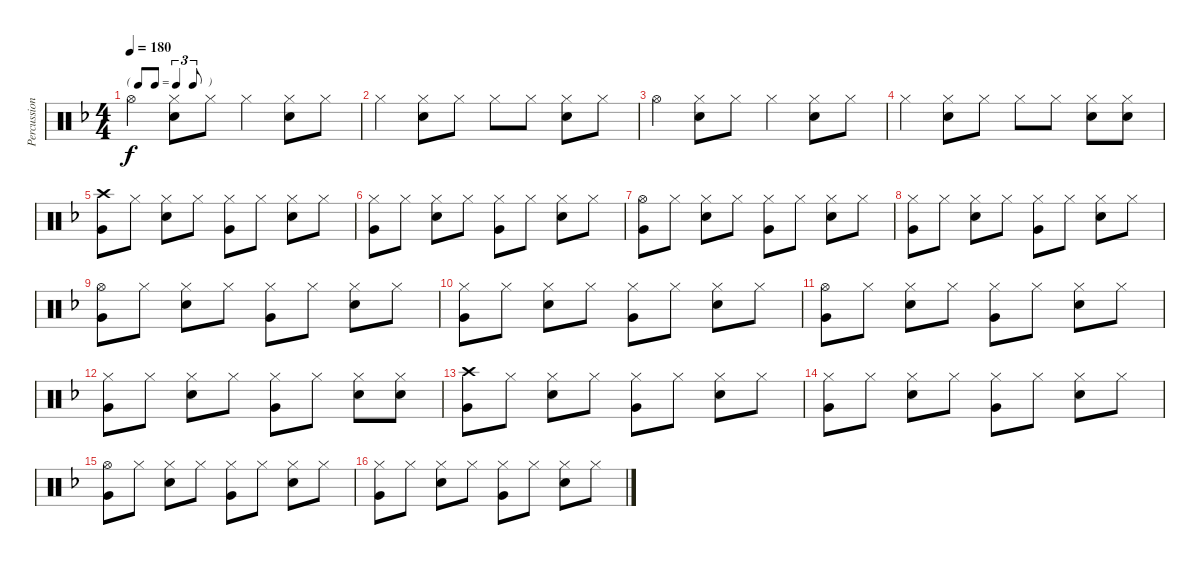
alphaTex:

\track ("Percussion" "Percussion") {instrument percussion}
\staff {score}
\articulation defaults
\ts (4 4)
\tf triplet8th
\tempo 180
\clef neutral
\ks f "Hi-Hat (open)".4{dy f}
("Hi-Hat (closed)" "Snare (hit) 2").8 "Hi-Hat (closed)".8 "Hi-Hat (closed)".4 ("Hi-Hat (closed)" "Snare (hit) 2").8 "Hi-Hat (closed)".8 |
"Hi-Hat (closed)".4 ("Hi-Hat (closed)" "Snare (hit) 2").8 "Hi-Hat (closed)".8 "Hi-Hat (closed)".8 "Hi-Hat (closed)".8 ("Hi-Hat (closed)" "Snare (hit) 2").8 "Hi-Hat (closed)".8 |
"Hi-Hat (open)".4 ("Hi-Hat (closed)" "Snare (hit) 2").8 "Hi-Hat (closed)".8 "Hi-Hat (closed)".4 ("Hi-Hat (closed)" "Snare (hit) 2").8 "Hi-Hat (closed)".8 |
"Hi-Hat (closed)".4 ("Hi-Hat (closed)" "Snare (hit) 2").8 "Hi-Hat (closed)".8 "Hi-Hat (closed)".8 "Hi-Hat (closed)".8 ("Hi-Hat (closed)" "Snare (hit) 2").8 ("Hi-Hat (closed)" "Snare (hit) 2").8 |
("Crash high (hit)" "Very Low Tom (hit)").8 "Hi-Hat (closed)".8 ("Hi-Hat (closed)" "Snare (hit) 2").8 "Hi-Hat (closed)".8 ("Hi-Hat (closed)" "Very Low Tom (hit)").8 "Hi-Hat (closed)".8 ("Hi-Hat (closed)" "Snare (hit) 2").8 "Hi-Hat (closed)".8 |
("Hi-Hat (closed)" "Very Low Tom (hit)").8 "Hi-Hat (closed)".8 ("Hi-Hat (closed)" "Snare (hit) 2").8 "Hi-Hat (closed)".8 ("Hi-Hat (closed)" "Very Low Tom (hit)").8 "Hi-Hat (closed)".8 ("Hi-Hat (closed)" "Snare (hit) 2").8 "Hi-Hat (closed)".8 |
("Hi-Hat (open)" "Very Low Tom (hit)").8 "Hi-Hat (closed)".8 ("Hi-Hat (closed)" "Snare (hit) 2").8 "Hi-Hat (closed)".8 ("Hi-Hat (closed)" "Very Low Tom (hit)").8 "Hi-Hat (closed)".8 ("Hi-Hat (closed)" "Snare (hit) 2").8 "Hi-Hat (closed)".8 |
("Hi-Hat (closed)" "Very Low Tom (hit)").8 "Hi-Hat (closed)".8 ("Hi-Hat (closed)" "Snare (hit) 2").8 "Hi-Hat (closed)".8 ("Hi-Hat (closed)" "Very Low Tom (hit)").8 "Hi-Hat (closed)".8 ("Hi-Hat (closed)" "Snare (hit) 2").8 "Hi-Hat (closed)".8 |
("Hi-Hat (open)" "Very Low Tom (hit)").8 "Hi-Hat (closed)".8 ("Hi-Hat (closed)" "Snare (hit) 2").8 "Hi-Hat (closed)".8 ("Hi-Hat (closed)" "Very Low Tom (hit)").8 "Hi-Hat (closed)".8 ("Hi-Hat (closed)" "Snare (hit) 2").8 "Hi-Hat (closed)".8 |
("Hi-Hat (closed)" "Very Low Tom (hit)").8 "Hi-Hat (closed)".8 ("Hi-Hat (closed)" "Snare (hit) 2").8 "Hi-Hat (closed)".8 ("Hi-Hat (closed)" "Very Low Tom (hit)").8 "Hi-Hat (closed)".8 ("Hi-Hat (closed)" "Snare (hit) 2").8 "Hi-Hat (closed)".8 |
("Hi-Hat (open)" "Very Low Tom (hit)").8 "Hi-Hat (closed)".8 ("Hi-Hat (closed)" "Snare (hit) 2").8 "Hi-Hat (closed)".8 ("Hi-Hat (closed)" "Very Low Tom (hit)").8 "Hi-Hat (closed)".8 ("Hi-Hat (closed)" "Snare (hit) 2").8 "Hi-Hat (closed)".8 |
("Hi-Hat (closed)" "Very Low Tom (hit)").8 "Hi-Hat (closed)".8 ("Hi-Hat (closed)" "Snare (hit) 2").8 "Hi-Hat (closed)".8 ("Hi-Hat (closed)" "Very Low Tom (hit)").8 "Hi-Hat (closed)".8 ("Hi-Hat (closed)" "Snare (hit) 2").8 ("Hi-Hat (closed)" "Snare (hit) 2").8 |
("Crash high (hit)" "Very Low Tom (hit)").8 "Hi-Hat (closed)".8 ("Hi-Hat (closed)" "Snare (hit) 2").8 "Hi-Hat (closed)".8 ("Hi-Hat (closed)" "Very Low Tom (hit)").8 "Hi-Hat (closed)".8 ("Hi-Hat (closed)" "Snare (hit) 2").8 "Hi-Hat (closed)".8 |
("Hi-Hat (closed)" "Very Low Tom (hit)").8 "Hi-Hat (closed)".8 ("Hi-Hat (closed)" "Snare (hit) 2").8 "Hi-Hat (closed)".8 ("Hi-Hat (closed)" "Very Low Tom (hit)").8 "Hi-Hat (closed)".8 ("Hi-Hat (closed)" "Snare (hit) 2").8 "Hi-Hat (closed)".8 |
("Hi-Hat (open)" "Very Low Tom (hit)").8 "Hi-Hat (closed)".8 ("Hi-Hat (closed)" "Snare (hit) 2").8 "Hi-Hat (closed)".8 ("Hi-Hat (closed)" "Very Low Tom (hit)").8 "Hi-Hat (closed)".8 ("Hi-Hat (closed)" "Snare (hit) 2").8 "Hi-Hat (closed)".8 |
("Hi-Hat (closed)" "Very Low Tom (hit)").8 "Hi-Hat (closed)".8 ("Hi-Hat (closed)" "Snare (hit) 2").8 "Hi-Hat (closed)".8 ("Hi-Hat (closed)" "Very Low Tom (hit)").8 "Hi-Hat (closed)".8 ("Hi-Hat (closed)" "Snare (hit) 2").8 "Hi-Hat (closed)".8
